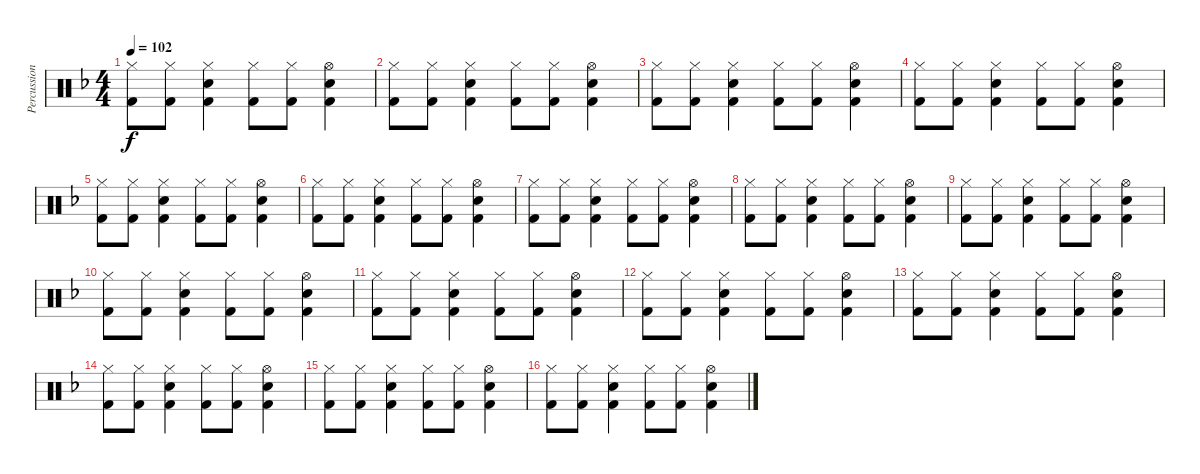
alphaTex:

\track ("Percussion" "Percussion") {instrument percussion}
\staff {score}
\articulation defaults
\ts (4 4)
\tempo 102
\clef neutral
\ks dminor
("Hi-Hat (closed)" "Kick (hit) 2").8{dy f} ("Hi-Hat (closed)" "Kick (hit) 2").8 ("Hi-Hat (closed)" "Kick (hit) 2" "Snare (hit) 2").4 ("Hi-Hat (closed)" "Kick (hit) 2").8 ("Hi-Hat (closed)" "Kick (hit) 2").8 ("Hi-Hat (open)" "Kick (hit) 2" "Snare (hit) 2").4 |
("Hi-Hat (closed)" "Kick (hit) 2").8 ("Hi-Hat (closed)" "Kick (hit) 2").8 ("Hi-Hat (closed)" "Kick (hit) 2" "Snare (hit) 2").4 ("Hi-Hat (closed)" "Kick (hit) 2").8 ("Hi-Hat (closed)" "Kick (hit) 2").8 ("Hi-Hat (open)" "Kick (hit) 2" "Snare (hit) 2").4 |
("Hi-Hat (closed)" "Kick (hit) 2").8 ("Hi-Hat (closed)" "Kick (hit) 2").8 ("Hi-Hat (closed)" "Kick (hit) 2" "Snare (hit) 2").4 ("Hi-Hat (closed)" "Kick (hit) 2").8 ("Hi-Hat (closed)" "Kick (hit) 2").8 ("Hi-Hat (open)" "Kick (hit) 2" "Snare (hit) 2").4 |
("Hi-Hat (closed)" "Kick (hit) 2").8 ("Hi-Hat (closed)" "Kick (hit) 2").8 ("Hi-Hat (closed)" "Kick (hit) 2" "Snare (hit) 2").4 ("Hi-Hat (closed)" "Kick (hit) 2").8 ("Hi-Hat (closed)" "Kick (hit) 2").8 ("Hi-Hat (open)" "Kick (hit) 2" "Snare (hit) 2").4 |
("Hi-Hat (closed)" "Kick (hit) 2").8 ("Hi-Hat (closed)" "Kick (hit) 2").8 ("Hi-Hat (closed)" "Kick (hit) 2" "Snare (hit) 2").4 ("Hi-Hat (closed)" "Kick (hit) 2").8 ("Hi-Hat (closed)" "Kick (hit) 2").8 ("Hi-Hat (open)" "Kick (hit) 2" "Snare (hit) 2").4 |
("Hi-Hat (closed)" "Kick (hit) 2").8 ("Hi-Hat (closed)" "Kick (hit) 2").8 ("Hi-Hat (closed)" "Kick (hit) 2" "Snare (hit) 2").4 ("Hi-Hat (closed)" "Kick (hit) 2").8 ("Hi-Hat (closed)" "Kick (hit) 2").8 ("Hi-Hat (open)" "Kick (hit) 2" "Snare (hit) 2").4 |
("Hi-Hat (closed)" "Kick (hit) 2").8 ("Hi-Hat (closed)" "Kick (hit) 2").8 ("Hi-Hat (closed)" "Kick (hit) 2" "Snare (hit) 2").4 ("Hi-Hat (closed)" "Kick (hit) 2").8 ("Hi-Hat (closed)" "Kick (hit) 2").8 ("Hi-Hat (open)" "Kick (hit) 2" "Snare (hit) 2").4 |
("Hi-Hat (closed)" "Kick (hit) 2").8 ("Hi-Hat (closed)" "Kick (hit) 2").8 ("Hi-Hat (closed)" "Kick (hit) 2" "Snare (hit) 2").4 ("Hi-Hat (closed)" "Kick (hit) 2").8 ("Hi-Hat (closed)" "Kick (hit) 2").8 ("Hi-Hat (open)" "Kick (hit) 2" "Snare (hit) 2").4 |
("Hi-Hat (closed)" "Kick (hit) 2").8 ("Hi-Hat (closed)" "Kick (hit) 2").8 ("Hi-Hat (closed)" "Kick (hit) 2" "Snare (hit) 2").4 ("Hi-Hat (closed)" "Kick (hit) 2").8 ("Hi-Hat (closed)" "Kick (hit) 2").8 ("Hi-Hat (open)" "Kick (hit) 2" "Snare (hit) 2").4 |
("Hi-Hat (closed)" "Kick (hit) 2").8 ("Hi-Hat (closed)" "Kick (hit) 2").8 ("Hi-Hat (closed)" "Kick (hit) 2" "Snare (hit) 2").4 ("Hi-Hat (closed)" "Kick (hit) 2").8 ("Hi-Hat (closed)" "Kick (hit) 2").8 ("Hi-Hat (open)" "Kick (hit) 2" "Snare (hit) 2").4 |
("Hi-Hat (closed)" "Kick (hit) 2").8 ("Hi-Hat (closed)" "Kick (hit) 2").8 ("Hi-Hat (closed)" "Kick (hit) 2" "Snare (hit) 2").4 ("Hi-Hat (closed)" "Kick (hit) 2").8 ("Hi-Hat (closed)" "Kick (hit) 2").8 ("Hi-Hat (open)" "Kick (hit) 2" "Snare (hit) 2").4 |
("Hi-Hat (closed)" "Kick (hit) 2").8 ("Hi-Hat (closed)" "Kick (hit) 2").8 ("Hi-Hat (closed)" "Kick (hit) 2" "Snare (hit) 2").4 ("Hi-Hat (closed)" "Kick (hit) 2").8 ("Hi-Hat (closed)" "Kick (hit) 2").8 ("Hi-Hat (open)" "Kick (hit) 2" "Snare (hit) 2").4 |
("Hi-Hat (closed)" "Kick (hit) 2").8 ("Hi-Hat (closed)" "Kick (hit) 2").8 ("Hi-Hat (closed)" "Kick (hit) 2" "Snare (hit) 2").4 ("Hi-Hat (closed)" "Kick (hit) 2").8 ("Hi-Hat (closed)" "Kick (hit) 2").8 ("Hi-Hat (open)" "Kick (hit) 2" "Snare (hit) 2").4 |
("Hi-Hat (closed)" "Kick (hit) 2").8 ("Hi-Hat (closed)" "Kick (hit) 2").8 ("Hi-Hat (closed)" "Kick (hit) 2" "Snare (hit) 2").4 ("Hi-Hat (closed)" "Kick (hit) 2").8 ("Hi-Hat (closed)" "Kick (hit) 2").8 ("Hi-Hat (open)" "Kick (hit) 2" "Snare (hit) 2").4 |
("Hi-Hat (closed)" "Kick (hit) 2").8 ("Hi-Hat (closed)" "Kick (hit) 2").8 ("Hi-Hat (closed)" "Kick (hit) 2" "Snare (hit) 2").4 ("Hi-Hat (closed)" "Kick (hit) 2").8 ("Hi-Hat (closed)" "Kick (hit) 2").8 ("Hi-Hat (open)" "Kick (hit) 2" "Snare (hit) 2").4 |
("Hi-Hat (closed)" "Kick (hit) 2").8 ("Hi-Hat (closed)" "Kick (hit) 2").8 ("Hi-Hat (closed)" "Kick (hit) 2" "Snare (hit) 2").4 ("Hi-Hat (closed)" "Kick (hit) 2").8 ("Hi-Hat (closed)" "Kick (hit) 2").8 ("Hi-Hat (open)" "Kick (hit) 2" "Snare (hit) 2").4
